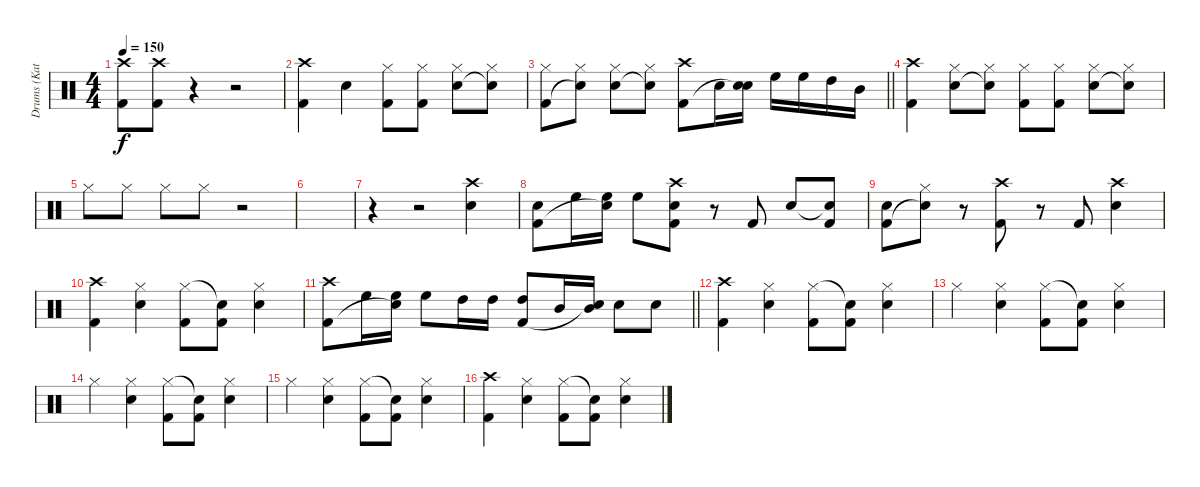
\track ("Drums (Katsuji)" "Drums (Kat") {instrument percussion}
\staff {score}
\articulation defaults
\ts (4 4)
\tempo 150
\clef neutral
\ks c
("Crash high (hit)" "Kick (hit) 2").8{dy f} ("Crash high (hit)" "Kick (hit) 2").8 r.4 r.2 |
("Crash high (hit)" "Kick (hit) 2").4 "Snare (hit) 2".4 ("Hi-Hat (closed)" "Kick (hit) 2").8 ("Hi-Hat (closed)" "Kick (hit) 2").8 ("Hi-Hat (closed)" "Snare (hit) 2").8 ("Hi-Hat (closed)" "Snare (hit)"{t}).8 |
\barLineRight lightlight
("Hi-Hat (closed)" "Kick (hit) 2").8 ("Hi-Hat (closed)" "Snare (hit)"{t}).8 ("Hi-Hat (closed)" "Snare (hit) 2").8 ("Hi-Hat (closed)" "Snare (hit)"{t}).8 ("Crash high (hit)" "Kick (hit) 2").8 "Snare (hit) 2".16 ("Snare (hit) 2" "Snare (hit)"{t}).16 "High Floor Tom (hit)".16 "High Floor Tom (hit)".16 "High Tom (hit)".16 "Mid Tom (hit)".16 |
("Crash high (hit)" "Kick (hit) 2").4 ("Hi-Hat (closed)" "Snare (hit) 2").8 ("Hi-Hat (closed)" "Snare (hit)"{t}).8 ("Hi-Hat (closed)" "Kick (hit) 2").8 ("Hi-Hat (closed)" "Kick (hit) 2").8 ("Hi-Hat (closed)" "Snare (hit) 2").8 ("Hi-Hat (closed)" "Snare (hit)"{t}).8 |
"Hi-Hat (closed)".8 "Hi-Hat (closed)".8 "Hi-Hat (closed)".8 "Hi-Hat (closed)".8 r.2 |
|
r.4 r.2 ("Crash high (hit)" "Snare (hit) 2").4 |
("Snare (hit) 2" "Kick (hit) 2").8 "High Floor Tom (hit)".16 ("High Floor Tom (hit)" "Snare (hit)"{t}).16 "High Floor Tom (hit)".8 ("Crash high (hit)" "Snare (hit) 2" "Kick (hit) 2").8 r.8 "Kick (hit) 2".8 "Snare (hit) 2".8 ("Snare (hit)"{t} "Kick (hit) 2").8 |
("Snare (hit) 2" "Kick (hit) 2").8 ("Hi-Hat (closed)" "Snare (hit)"{t}).8 r.8 ("Crash high (hit)" "Kick (hit) 2").8 r.8 "Kick (hit) 2".8 ("Crash high (hit)" "Snare (hit) 2").4 |
("Crash high (hit)" "Kick (hit) 2").4 ("Hi-Hat (closed)" "Snare (hit) 2").4 ("Hi-Hat (closed)" "Kick (hit) 2").8 ("Snare (hit)"{t} "Kick (hit) 2").8 ("Hi-Hat (closed)" "Snare (hit) 2").4 |
\barLineRight lightlight
("Crash high (hit)" "Kick (hit) 2").8 "High Floor Tom (hit)".16 ("High Floor Tom (hit)" "Snare (hit)"{t}).16 "High Floor Tom (hit)".8 "High Tom (hit)".16 "High Tom (hit)".16 ("High Tom (hit)" "Kick (hit) 2").8 "Mid Tom (hit)".16 ("Mid Tom (hit)" "Snare (hit)"{t}).16 "Snare (hit) 2".8 "Snare (hit) 2".8 |
("Crash high (hit)" "Kick (hit) 2").4 ("Hi-Hat (closed)" "Snare (hit) 2").4 ("Hi-Hat (closed)" "Kick (hit) 2").8 ("Snare (hit)"{t} "Kick (hit) 2").8 ("Hi-Hat (closed)" "Snare (hit) 2").4 |
"Hi-Hat (closed)".4 ("Hi-Hat (closed)" "Snare (hit) 2").4 ("Hi-Hat (closed)" "Kick (hit) 2").8 ("Snare (hit)"{t} "Kick (hit) 2").8 ("Hi-Hat (closed)" "Snare (hit) 2").4 |
"Hi-Hat (closed)".4 ("Hi-Hat (closed)" "Snare (hit) 2").4 ("Hi-Hat (closed)" "Kick (hit) 2").8 ("Snare (hit)"{t} "Kick (hit) 2").8 ("Hi-Hat (closed)" "Snare (hit) 2").4 |
"Hi-Hat (closed)".4 ("Hi-Hat (closed)" "Snare (hit) 2").4 ("Hi-Hat (closed)" "Kick (hit) 2").8 ("Snare (hit)"{t} "Kick (hit) 2").8 ("Hi-Hat (closed)" "Snare (hit) 2").4 |
("Crash high (hit)" "Kick (hit) 2").4 ("Hi-Hat (closed)" "Snare (hit) 2").4 ("Hi-Hat (closed)" "Kick (hit) 2").8 ("Snare (hit)"{t} "Kick (hit) 2").8 ("Hi-Hat (closed)" "Snare (hit) 2").4
